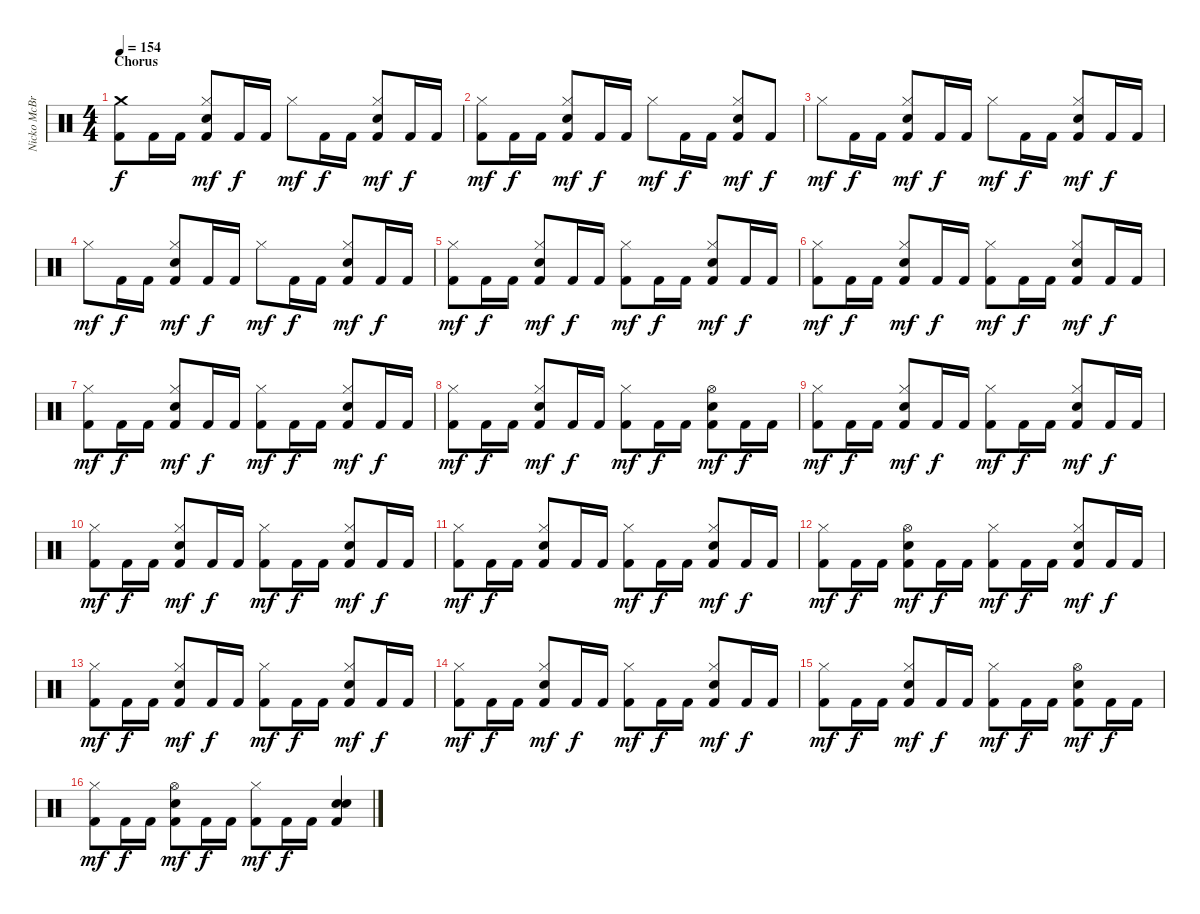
\track ("Nicko McBrain" "Nicko McBr") {instrument percussion}
\staff {score}
\articulation defaults
\ts (4 4)
\section ("" "Chorus")
\tempo 154
\clef neutral
\ks c
("Crash medium (hit)" "Kick (hit) 2").8{dy f} "Kick (hit) 2".16 "Kick (hit) 2".16 ("Hi-Hat (closed)" "Kick (hit) 2" "Electric Snare (hit)").8{dy mf} "Kick (hit) 2".16{dy f} "Kick (hit) 2".16 "Hi-Hat (closed)".8{dy mf} "Kick (hit) 2".16{dy f} "Kick (hit) 2".16 ("Hi-Hat (closed)" "Kick (hit) 2" "Electric Snare (hit)").8{dy mf} "Kick (hit) 2".16{dy f} "Kick (hit) 2".16 |
("Hi-Hat (closed)" "Kick (hit) 2").8{dy mf} "Kick (hit) 2".16{dy f} "Kick (hit) 2".16 ("Hi-Hat (closed)" "Kick (hit) 2" "Electric Snare (hit)").8{dy mf} "Kick (hit) 2".16{dy f} "Kick (hit) 2".16 "Hi-Hat (closed)".8{dy mf} "Kick (hit) 2".16{dy f} "Kick (hit) 2".16 ("Hi-Hat (closed)" "Kick (hit) 2" "Electric Snare (hit)").8{dy mf} "Kick (hit) 2".8{dy f} |
"Hi-Hat (closed)".8{dy mf} "Kick (hit) 2".16{dy f} "Kick (hit) 2".16 ("Hi-Hat (closed)" "Kick (hit) 2" "Electric Snare (hit)").8{dy mf} "Kick (hit) 2".16{dy f} "Kick (hit) 2".16 "Hi-Hat (closed)".8{dy mf} "Kick (hit) 2".16{dy f} "Kick (hit) 2".16 ("Hi-Hat (closed)" "Kick (hit) 2" "Electric Snare (hit)").8{dy mf} "Kick (hit) 2".16{dy f} "Kick (hit) 2".16 |
"Hi-Hat (closed)".8{dy mf} "Kick (hit) 2".16{dy f} "Kick (hit) 2".16 ("Hi-Hat (closed)" "Kick (hit) 2" "Electric Snare (hit)").8{dy mf} "Kick (hit) 2".16{dy f} "Kick (hit) 2".16 "Hi-Hat (closed)".8{dy mf} "Kick (hit) 2".16{dy f} "Kick (hit) 2".16 ("Hi-Hat (closed)" "Kick (hit) 2" "Electric Snare (hit)").8{dy mf} "Kick (hit) 2".16{dy f} "Kick (hit) 2".16 |
("Hi-Hat (closed)" "Kick (hit) 2").8{dy mf} "Kick (hit) 2".16{dy f} "Kick (hit) 2".16 ("Hi-Hat (closed)" "Kick (hit) 2" "Electric Snare (hit)").8{dy mf} "Kick (hit) 2".16{dy f} "Kick (hit) 2".16 ("Hi-Hat (closed)" "Kick (hit) 2").8{dy mf} "Kick (hit) 2".16{dy f} "Kick (hit) 2".16 ("Hi-Hat (closed)" "Kick (hit) 2" "Electric Snare (hit)").8{dy mf} "Kick (hit) 2".16{dy f} "Kick (hit) 2".16 |
("Hi-Hat (closed)" "Kick (hit) 2").8{dy mf} "Kick (hit) 2".16{dy f} "Kick (hit) 2".16 ("Hi-Hat (closed)" "Kick (hit) 2" "Electric Snare (hit)").8{dy mf} "Kick (hit) 2".16{dy f} "Kick (hit) 2".16 ("Hi-Hat (closed)" "Kick (hit) 2").8{dy mf} "Kick (hit) 2".16{dy f} "Kick (hit) 2".16 ("Hi-Hat (closed)" "Kick (hit) 2" "Electric Snare (hit)").8{dy mf} "Kick (hit) 2".16{dy f} "Kick (hit) 2".16 |
("Hi-Hat (closed)" "Kick (hit) 2").8{dy mf} "Kick (hit) 2".16{dy f} "Kick (hit) 2".16 ("Hi-Hat (closed)" "Kick (hit) 2" "Electric Snare (hit)").8{dy mf} "Kick (hit) 2".16{dy f} "Kick (hit) 2".16 ("Hi-Hat (closed)" "Kick (hit) 2").8{dy mf} "Kick (hit) 2".16{dy f} "Kick (hit) 2".16 ("Hi-Hat (closed)" "Kick (hit) 2" "Electric Snare (hit)").8{dy mf} "Kick (hit) 2".16{dy f} "Kick (hit) 2".16 |
("Hi-Hat (closed)" "Kick (hit) 2").8{dy mf} "Kick (hit) 2".16{dy f} "Kick (hit) 2".16 ("Hi-Hat (closed)" "Kick (hit) 2" "Electric Snare (hit)").8{dy mf} "Kick (hit) 2".16{dy f} "Kick (hit) 2".16 ("Hi-Hat (closed)" "Kick (hit) 2").8{dy mf} "Kick (hit) 2".16{dy f} "Kick (hit) 2".16 ("Hi-Hat (open)" "Kick (hit) 2" "Electric Snare (hit)").8{dy mf} "Kick (hit) 2".16{dy f} "Kick (hit) 2".16 |
("Hi-Hat (closed)" "Kick (hit) 2").8{dy mf} "Kick (hit) 2".16{dy f} "Kick (hit) 2".16 ("Hi-Hat (closed)" "Kick (hit) 2" "Electric Snare (hit)").8{dy mf} "Kick (hit) 2".16{dy f} "Kick (hit) 2".16 ("Hi-Hat (closed)" "Kick (hit) 2").8{dy mf} "Kick (hit) 2".16{dy f} "Kick (hit) 2".16 ("Hi-Hat (closed)" "Kick (hit) 2" "Electric Snare (hit)").8{dy mf} "Kick (hit) 2".16{dy f} "Kick (hit) 2".16 |
("Hi-Hat (closed)" "Kick (hit) 2").8{dy mf} "Kick (hit) 2".16{dy f} "Kick (hit) 2".16 ("Hi-Hat (closed)" "Kick (hit) 2" "Electric Snare (hit)").8{dy mf} "Kick (hit) 2".16{dy f} "Kick (hit) 2".16 ("Hi-Hat (closed)" "Kick (hit) 2").8{dy mf} "Kick (hit) 2".16{dy f} "Kick (hit) 2".16 ("Hi-Hat (closed)" "Kick (hit) 2" "Electric Snare (hit)").8{dy mf} "Kick (hit) 2".16{dy f} "Kick (hit) 2".16 |
("Hi-Hat (closed)" "Kick (hit) 2").8{dy mf} "Kick (hit) 2".16{dy f} "Kick (hit) 2".16 ("Hi-Hat (closed)" "Kick (hit) 2" "Electric Snare (hit)").8 "Kick (hit) 2".16 "Kick (hit) 2".16 ("Hi-Hat (closed)" "Kick (hit) 2").8{dy mf} "Kick (hit) 2".16{dy f} "Kick (hit) 2".16 ("Hi-Hat (closed)" "Kick (hit) 2" "Electric Snare (hit)").8{dy mf} "Kick (hit) 2".16{dy f} "Kick (hit) 2".16 |
("Hi-Hat (closed)" "Kick (hit) 2").8{dy mf} "Kick (hit) 2".16{dy f} "Kick (hit) 2".16 ("Hi-Hat (open)" "Kick (hit) 2" "Electric Snare (hit)").8{dy mf} "Kick (hit) 2".16{dy f} "Kick (hit) 2".16 ("Hi-Hat (closed)" "Kick (hit) 2").8{dy mf} "Kick (hit) 2".16{dy f} "Kick (hit) 2".16 ("Hi-Hat (closed)" "Kick (hit) 2" "Electric Snare (hit)").8{dy mf} "Kick (hit) 2".16{dy f} "Kick (hit) 2".16 |
("Hi-Hat (closed)" "Kick (hit) 2").8{dy mf} "Kick (hit) 2".16{dy f} "Kick (hit) 2".16 ("Hi-Hat (closed)" "Kick (hit) 2" "Electric Snare (hit)").8{dy mf} "Kick (hit) 2".16{dy f} "Kick (hit) 2".16 ("Hi-Hat (closed)" "Kick (hit) 2").8{dy mf} "Kick (hit) 2".16{dy f} "Kick (hit) 2".16 ("Hi-Hat (closed)" "Kick (hit) 2" "Electric Snare (hit)").8{dy mf} "Kick (hit) 2".16{dy f} "Kick (hit) 2".16 |
("Hi-Hat (closed)" "Kick (hit) 2").8{dy mf} "Kick (hit) 2".16{dy f} "Kick (hit) 2".16 ("Hi-Hat (closed)" "Kick (hit) 2" "Electric Snare (hit)").8{dy mf} "Kick (hit) 2".16{dy f} "Kick (hit) 2".16 ("Hi-Hat (closed)" "Kick (hit) 2").8{dy mf} "Kick (hit) 2".16{dy f} "Kick (hit) 2".16 ("Hi-Hat (closed)" "Kick (hit) 2" "Electric Snare (hit)").8{dy mf} "Kick (hit) 2".16{dy f} "Kick (hit) 2".16 |
("Hi-Hat (closed)" "Kick (hit) 2").8{dy mf} "Kick (hit) 2".16{dy f} "Kick (hit) 2".16 ("Hi-Hat (closed)" "Kick (hit) 2" "Electric Snare (hit)").8{dy mf} "Kick (hit) 2".16{dy f} "Kick (hit) 2".16 ("Hi-Hat (closed)" "Kick (hit) 2").8{dy mf} "Kick (hit) 2".16{dy f} "Kick (hit) 2".16 ("Hi-Hat (open)" "Kick (hit) 2" "Electric Snare (hit)").8{dy mf} "Kick (hit) 2".16{dy f} "Kick (hit) 2".16 |
("Hi-Hat (closed)" "Kick (hit) 2").8{dy mf} "Kick (hit) 2".16{dy f} "Kick (hit) 2".16 ("Hi-Hat (open)" "Kick (hit) 2" "Electric Snare (hit)").8{dy mf} "Kick (hit) 2".16{dy f} "Kick (hit) 2".16 ("Hi-Hat (closed)" "Kick (hit) 2").8{dy mf} "Kick (hit) 2".16{dy f} "Kick (hit) 2".16 ("Snare (hit) 2" "Kick (hit) 2" "Electric Snare (hit)").4
